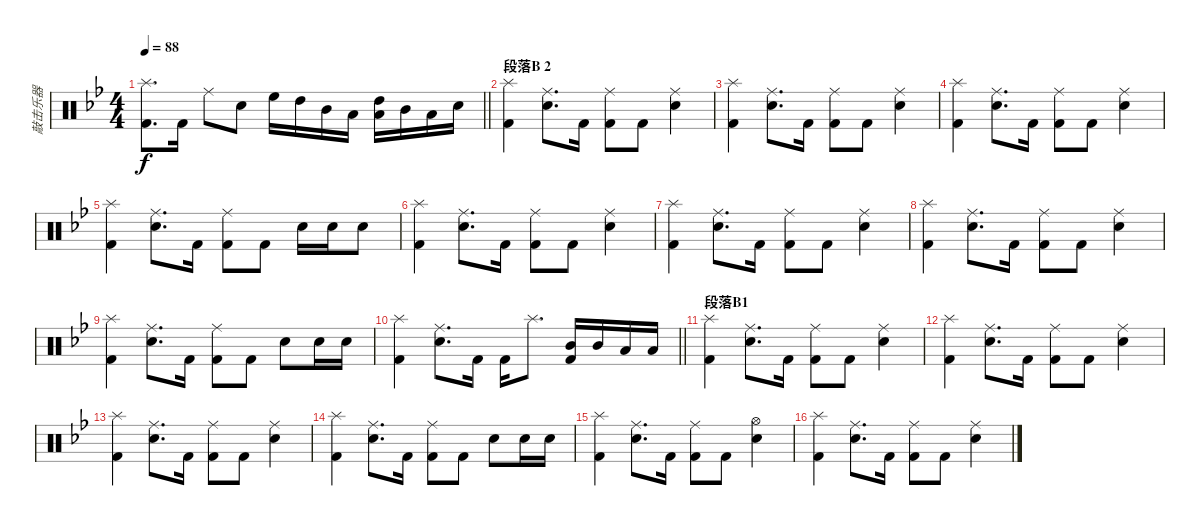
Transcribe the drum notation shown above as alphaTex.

\track ("敲击乐器" "敲击乐器") {instrument percussion}
\staff {score}
\articulation defaults
\ts (4 4)
\tempo 88
\clef neutral
\barLineRight lightlight
\ks bb
("Splash (hit)" "Kick (hit) 2").8{d dy f} "Kick (hit) 2".16 "Ride (middle)".8 "Snare (hit) 2".8 "High Floor Tom (hit)".16 "High Tom (hit)".16 "Mid Tom (hit)".16 "Low Tom (hit)".16 ("High Tom (hit)" "Low Floor Tom (hit)").16 "Mid Tom (hit)".16 "Low Tom (hit)".16 "Snare (hit) 2".16 |
\section ("" "段落B 2")
("Splash (hit)" "Kick (hit) 2").4 ("Ride (middle)" "Snare (hit) 2").8{d} "Kick (hit) 2".16 ("Ride (middle)" "Kick (hit) 2").8 "Kick (hit) 2".8 ("Ride (middle)" "Snare (hit) 2").4 |
("Splash (hit)" "Kick (hit) 2").4 ("Ride (middle)" "Snare (hit) 2").8{d} "Kick (hit) 2".16 ("Ride (middle)" "Kick (hit) 2").8 "Kick (hit) 2".8 ("Ride (middle)" "Snare (hit) 2").4 |
("Splash (hit)" "Kick (hit) 2").4 ("Ride (middle)" "Snare (hit) 2").8{d} "Kick (hit) 2".16 ("Ride (middle)" "Kick (hit) 2").8 "Kick (hit) 2".8 ("Ride (middle)" "Snare (hit) 2").4 |
("Splash (hit)" "Kick (hit) 2").4 ("Ride (middle)" "Snare (hit) 2").8{d} "Kick (hit) 2".16 ("Ride (middle)" "Kick (hit) 2").8 "Kick (hit) 2".8 "Snare (hit) 2".16 "Snare (hit) 2".16 "Snare (hit) 2".8 |
("Splash (hit)" "Kick (hit) 2").4 ("Ride (middle)" "Snare (hit) 2").8{d} "Kick (hit) 2".16 ("Ride (middle)" "Kick (hit) 2").8 "Kick (hit) 2".8 ("Ride (middle)" "Snare (hit) 2").4 |
("Splash (hit)" "Kick (hit) 2").4 ("Ride (middle)" "Snare (hit) 2").8{d} "Kick (hit) 2".16 ("Ride (middle)" "Kick (hit) 2").8 "Kick (hit) 2".8 ("Ride (middle)" "Snare (hit) 2").4 |
("Splash (hit)" "Kick (hit) 2").4 ("Ride (middle)" "Snare (hit) 2").8{d} "Kick (hit) 2".16 ("Ride (middle)" "Kick (hit) 2").8 "Kick (hit) 2".8 ("Ride (middle)" "Snare (hit) 2").4 |
("Splash (hit)" "Kick (hit) 2").4 ("Ride (middle)" "Snare (hit) 2").8{d} "Kick (hit) 2".16 ("Ride (middle)" "Kick (hit) 2").8 "Kick (hit) 2".8 "Snare (hit) 2".8 "Snare (hit) 2".16 "Snare (hit) 2".16 |
\barLineRight lightlight
("Splash (hit)" "Kick (hit) 2").4 ("Ride (middle)" "Snare (hit) 2").8{d} "Kick (hit) 2".16 "Kick (hit) 2".16 "Splash (hit)".8{d} ("Mid Tom (hit)" "Kick (hit) 2").16 "Mid Tom (hit)".16 "Low Tom (hit)".16 "Low Tom (hit)".16 |
\section ("" "段落B1")
("Splash (hit)" "Kick (hit) 2").4 ("Ride (middle)" "Snare (hit) 2").8{d} "Kick (hit) 2".16 ("Ride (middle)" "Kick (hit) 2").8 "Kick (hit) 2".8 ("Ride (middle)" "Snare (hit) 2").4 |
("Splash (hit)" "Kick (hit) 2").4 ("Ride (middle)" "Snare (hit) 2").8{d} "Kick (hit) 2".16 ("Ride (middle)" "Kick (hit) 2").8 "Kick (hit) 2".8 ("Ride (middle)" "Snare (hit) 2").4 |
("Splash (hit)" "Kick (hit) 2").4 ("Ride (middle)" "Snare (hit) 2").8{d} "Kick (hit) 2".16 ("Ride (middle)" "Kick (hit) 2").8 "Kick (hit) 2".8 ("Ride (middle)" "Snare (hit) 2").4 |
("Splash (hit)" "Kick (hit) 2").4 ("Ride (middle)" "Snare (hit) 2").8{d} "Kick (hit) 2".16 ("Ride (middle)" "Kick (hit) 2").8 "Kick (hit) 2".8 "Snare (hit) 2".8 "Snare (hit) 2".16 "Snare (hit) 2".16 |
("Splash (hit)" "Kick (hit) 2").4 ("Ride (middle)" "Snare (hit) 2").8{d} "Kick (hit) 2".16 ("Ride (middle)" "Kick (hit) 2").8 "Kick (hit) 2".8 ("Hi-Hat (open)" "Snare (hit) 2").4 |
("Splash (hit)" "Kick (hit) 2").4 ("Ride (middle)" "Snare (hit) 2").8{d} "Kick (hit) 2".16 ("Ride (middle)" "Kick (hit) 2").8 "Kick (hit) 2".8 ("Ride (middle)" "Snare (hit) 2").4
